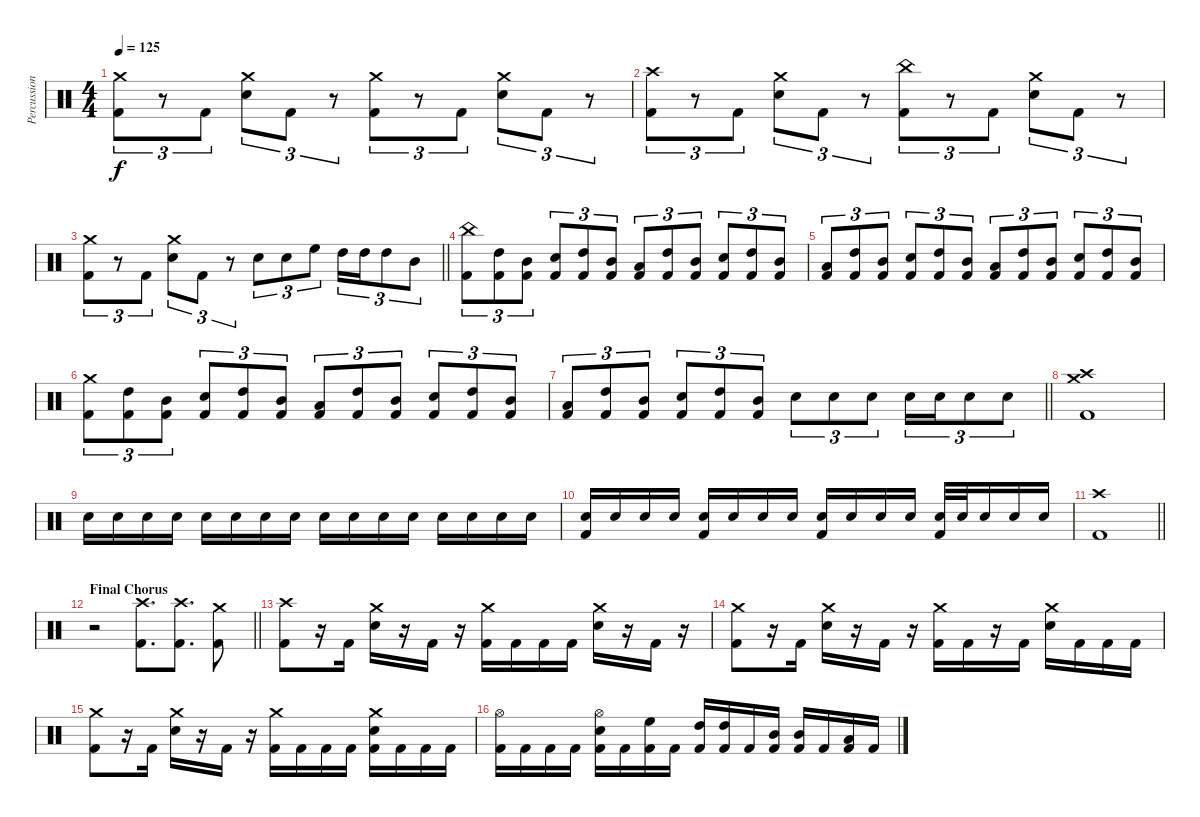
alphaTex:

\track ("Percussion" "Percussion") {instrument percussion}
\staff {score}
\articulation defaults
\ts (4 4)
\tempo 125
\clef neutral
\ks c
("Crash medium (hit)" "Kick (hit) 2").8{tu (3 2) dy f} r.8{tu (3 2)} "Kick (hit) 2".8{tu (3 2)} ("Crash medium (hit)" "Snare (hit) 2").8{tu (3 2)} "Kick (hit) 2".8{tu (3 2)} r.8{tu (3 2)} ("Crash medium (hit)" "Kick (hit) 2").8{tu (3 2)} r.8{tu (3 2)} "Kick (hit) 2".8{tu (3 2)} ("Crash medium (hit)" "Snare (hit) 2").8{tu (3 2)} "Kick (hit) 2".8{tu (3 2)} r.8{tu (3 2)} |
("Crash high (hit)" "Kick (hit) 2").8{tu (3 2)} r.8{tu (3 2)} "Kick (hit) 2".8{tu (3 2)} ("Crash medium (hit)" "Snare (hit) 2").8{tu (3 2)} "Kick (hit) 2".8{tu (3 2)} r.8{tu (3 2)} ("China (hit)" "Kick (hit) 2").8{tu (3 2)} r.8{tu (3 2)} "Kick (hit) 2".8{tu (3 2)} ("Crash medium (hit)" "Snare (hit) 2").8{tu (3 2)} "Kick (hit) 2".8{tu (3 2)} r.8{tu (3 2)} |
\barLineRight lightlight
("Crash medium (hit)" "Kick (hit) 2").8{tu (3 2)} r.8{tu (3 2)} "Kick (hit) 2".8{tu (3 2)} ("Crash medium (hit)" "Snare (hit) 2").8{tu (3 2)} "Kick (hit) 2".8{tu (3 2)} r.8{tu (3 2)} "Snare (hit) 2".8{tu (3 2)} "Snare (hit) 2".8{tu (3 2)} "High Floor Tom (hit)".8{tu (3 2)} "High Tom (hit)".16{tu (3 2)} "High Tom (hit)".16{tu (3 2)} "High Tom (hit)".8{tu (3 2)} "Mid Tom (hit)".8{tu (3 2)} |
("China (hit)" "Kick (hit) 2").8{tu (3 2)} ("High Tom (hit)" "Kick (hit) 2").8{tu (3 2)} ("Mid Tom (hit)" "Kick (hit) 2").8{tu (3 2)} ("Snare (hit) 2" "Kick (hit) 2").8{tu (3 2)} ("High Tom (hit)" "Kick (hit) 2").8{tu (3 2)} ("Mid Tom (hit)" "Kick (hit) 2").8{tu (3 2)} ("Low Tom (hit)" "Kick (hit) 2").8{tu (3 2)} ("High Tom (hit)" "Kick (hit) 2").8{tu (3 2)} ("Mid Tom (hit)" "Kick (hit) 2").8{tu (3 2)} ("Snare (hit) 2" "Kick (hit) 2").8{tu (3 2)} ("High Tom (hit)" "Kick (hit) 2").8{tu (3 2)} ("Mid Tom (hit)" "Kick (hit) 2").8{tu (3 2)} |
("Low Tom (hit)" "Kick (hit) 2").8{tu (3 2)} ("High Tom (hit)" "Kick (hit) 2").8{tu (3 2)} ("Mid Tom (hit)" "Kick (hit) 2").8{tu (3 2)} ("Snare (hit) 2" "Kick (hit) 2").8{tu (3 2)} ("High Tom (hit)" "Kick (hit) 2").8{tu (3 2)} ("Mid Tom (hit)" "Kick (hit) 2").8{tu (3 2)} ("Low Tom (hit)" "Kick (hit) 2").8{tu (3 2)} ("High Tom (hit)" "Kick (hit) 2").8{tu (3 2)} ("Mid Tom (hit)" "Kick (hit) 2").8{tu (3 2)} ("Snare (hit) 2" "Kick (hit) 2").8{tu (3 2)} ("High Tom (hit)" "Kick (hit) 2").8{tu (3 2)} ("Mid Tom (hit)" "Kick (hit) 2").8{tu (3 2)} |
("Crash medium (hit)" "Kick (hit) 2").8{tu (3 2)} ("High Tom (hit)" "Kick (hit) 2").8{tu (3 2)} ("Mid Tom (hit)" "Kick (hit) 2").8{tu (3 2)} ("Snare (hit) 2" "Kick (hit) 2").8{tu (3 2)} ("High Tom (hit)" "Kick (hit) 2").8{tu (3 2)} ("Mid Tom (hit)" "Kick (hit) 2").8{tu (3 2)} ("Low Tom (hit)" "Kick (hit) 2").8{tu (3 2)} ("High Tom (hit)" "Kick (hit) 2").8{tu (3 2)} ("Mid Tom (hit)" "Kick (hit) 2").8{tu (3 2)} ("Snare (hit) 2" "Kick (hit) 2").8{tu (3 2)} ("High Tom (hit)" "Kick (hit) 2").8{tu (3 2)} ("Mid Tom (hit)" "Kick (hit) 2").8{tu (3 2)} |
\barLineRight lightlight
("Low Tom (hit)" "Kick (hit) 2").8{tu (3 2)} ("High Tom (hit)" "Kick (hit) 2").8{tu (3 2)} ("Mid Tom (hit)" "Kick (hit) 2").8{tu (3 2)} ("Snare (hit) 2" "Kick (hit) 2").8{tu (3 2)} ("High Tom (hit)" "Kick (hit) 2").8{tu (3 2)} ("Mid Tom (hit)" "Kick (hit) 2").8{tu (3 2)} "Snare (hit) 2".8{tu (3 2)} "Snare (hit) 2".8{tu (3 2)} "Snare (hit) 2".8{tu (3 2)} "Snare (hit) 2".16{tu (3 2)} "Snare (hit) 2".16{tu (3 2)} "Snare (hit) 2".8{tu (3 2)} "Snare (hit) 2".8{tu (3 2)} |
("Crash high (hit)" "Crash medium (hit)" "Kick (hit) 2").1 |
"Snare (hit) 2".16{volume 0} "Snare (hit) 2".16{volume 13} "Snare (hit) 2".16 "Snare (hit) 2".16 "Snare (hit) 2".16 "Snare (hit) 2".16 "Snare (hit) 2".16 "Snare (hit) 2".16 "Snare (hit) 2".16 "Snare (hit) 2".16 "Snare (hit) 2".16 "Snare (hit) 2".16 "Snare (hit) 2".16 "Snare (hit) 2".16 "Snare (hit) 2".16 "Snare (hit) 2".16 |
("Snare (hit) 2" "Kick (hit) 2").16 "Snare (hit) 2".16 "Snare (hit) 2".16 "Snare (hit) 2".16 ("Snare (hit) 2" "Kick (hit) 2").16 "Snare (hit) 2".16 "Snare (hit) 2".16 "Snare (hit) 2".16 ("Snare (hit) 2" "Kick (hit) 2").16 "Snare (hit) 2".16 "Snare (hit) 2".16 "Snare (hit) 2".16 ("Snare (hit) 2" "Kick (hit) 2").32 "Snare (hit) 2".32 "Snare (hit) 2".16 "Snare (hit) 2".16 "Snare (hit) 2".16 |
\barLineRight lightlight
("Crash high (hit)" "Kick (hit) 2").1 |
\section ("" "Final Chorus")
\barLineRight lightlight
r.2 ("Crash high (hit)" "Kick (hit) 2").8{d} ("Crash high (hit)" "Kick (hit) 2").8{d} ("Crash medium (hit)" "Kick (hit) 2").8 |
("Crash high (hit)" "Kick (hit) 2").8 r.16 "Kick (hit) 2".16 ("Crash medium (hit)" "Snare (hit) 2").16 r.16 "Kick (hit) 2".16 r.16 ("Crash medium (hit)" "Kick (hit) 2").16 "Kick (hit) 2".16 "Kick (hit) 2".16 "Kick (hit) 2".16 ("Crash medium (hit)" "Snare (hit) 2").16 r.16 "Kick (hit) 2".16 r.16 |
("Crash medium (hit)" "Kick (hit) 2").8 r.16 "Kick (hit) 2".16 ("Crash medium (hit)" "Snare (hit) 2").16 r.16 "Kick (hit) 2".16 r.16 ("Crash medium (hit)" "Kick (hit) 2").16 "Kick (hit) 2".16 r.16 "Kick (hit) 2".16 ("Crash medium (hit)" "Snare (hit) 2").16 "Kick (hit) 2".16 "Kick (hit) 2".16 "Kick (hit) 2".16 |
("Crash medium (hit)" "Kick (hit) 2").8 r.16 "Kick (hit) 2".16 ("Crash medium (hit)" "Snare (hit) 2").16 r.16 "Kick (hit) 2".16 r.16 ("Crash medium (hit)" "Kick (hit) 2").16 "Kick (hit) 2".16 "Kick (hit) 2".16 "Kick (hit) 2".16 ("Crash medium (hit)" "Snare (hit) 2" "Kick (hit) 2").16 "Kick (hit) 2".16 "Kick (hit) 2".16 "Kick (hit) 2".16 |
("Hi-Hat (open)" "Kick (hit) 2").16 "Kick (hit) 2".16 "Kick (hit) 2".16 "Kick (hit) 2".16 ("Hi-Hat (open)" "Snare (hit) 2" "Kick (hit) 2").16 "Kick (hit) 2".16 ("High Floor Tom (hit)" "Kick (hit) 2").16 "Kick (hit) 2".16 ("High Tom (hit)" "Kick (hit) 2").16 ("High Tom (hit)" "Kick (hit) 2").16 "Kick (hit) 2".16 ("Mid Tom (hit)" "Kick (hit) 2").16 ("Mid Tom (hit)" "Kick (hit) 2").16 "Kick (hit) 2".16 ("Low Tom (hit)" "Kick (hit) 2").16 "Kick (hit) 2".16
